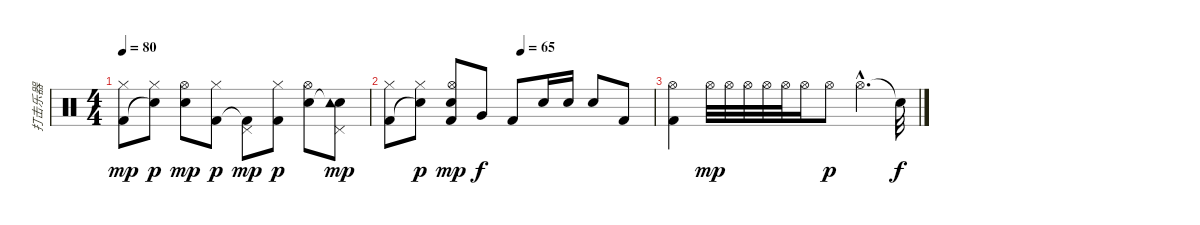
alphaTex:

\track ("打击乐器" "打击乐器") {instrument percussion}
\staff {score}
\articulation defaults
\ts (4 4)
\tempo 80
\clef neutral
\ks c
("Hi-Hat (closed)" "Kick (hit) 2").8{dy mp} ("Hi-Hat (closed)" "Snare (hit)"{t}).8{dy p} ("Hi-Hat (open)" "Electric Snare (hit)").8{dy mp} ("Hi-Hat (closed)" "Kick (hit) 2").8{dy p} ("Pedal Hi-Hat (hit)" "Kick (hit) 2"{t}).8{dy mp} ("Hi-Hat (closed)" "Kick (hit) 2").8{dy p} ("Hi-Hat (open)" "Electric Snare (hit)").8 ("Pedal Hi-Hat (hit)" "Snare (hit)"{t} "Tambourine (hit)").8{dy mp} |
\tempo (65 0.5)
("Hi-Hat (closed)" "Kick (hit) 2").8 ("Hi-Hat (closed)" "Snare (hit)"{t}).8{dy p} ("Hi-Hat (open)" "Electric Snare (hit)" "Kick (hit) 2").8{dy mp} "Very Low Tom (hit)".8{dy f} "Kick (hit) 2".8 "Electric Snare (hit)".16 "Electric Snare (hit)".16 "Electric Snare (hit)".8 "Kick (hit) 2".8 |
("Hi-Hat (open)" "Kick (hit) 2").4 "Hi-Hat (open)".32{dy mp} "Hi-Hat (open)".32 "Hi-Hat (open)".32 "Hi-Hat (open)".32 "Hi-Hat (open)".32 "Hi-Hat (open)".16 "Hi-Hat (open)".8{dy p} "Hi-Hat (open)"{hac}.4{d} "Snare (hit)"{t}.32{dy f}
